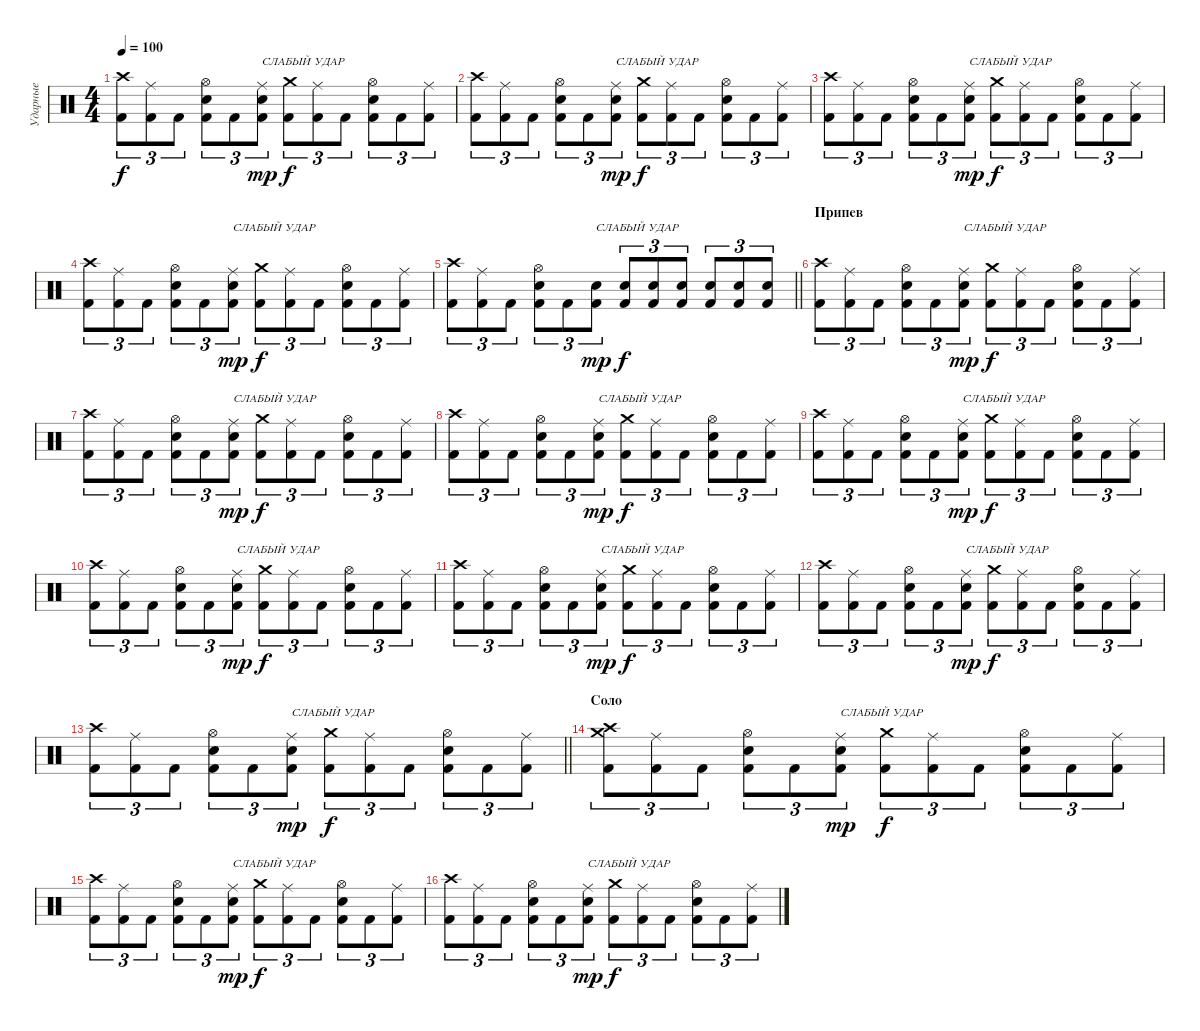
\track ("Ударные" "Ударные") {instrument percussion}
\staff {score}
\articulation defaults
\ts (4 4)
\tempo 100
\clef neutral
\ks c
("Kick (hit) 2" "Crash high (hit)").8{tu (3 2) dy f} ("Kick (hit) 2" "Ride (middle)").8{tu (3 2)} "Kick (hit) 2".8{tu (3 2)} ("Kick (hit) 2" "Snare (hit) 2" "Hi-Hat (open)").8{tu (3 2)} "Kick (hit) 2".8{tu (3 2)} ("Kick (hit) 2" "Snare (hit) 2" "Ride (middle)").8{tu (3 2) txt "СЛАБЫЙ УДАР" dy mp} ("Kick (hit) 2" "Crash medium (hit)").8{tu (3 2) dy f} ("Kick (hit) 2" "Ride (middle)").8{tu (3 2)} "Kick (hit) 2".8{tu (3 2)} ("Kick (hit) 2" "Snare (hit) 2" "Hi-Hat (open)").8{tu (3 2)} "Kick (hit) 2".8{tu (3 2)} ("Kick (hit) 2" "Ride (middle)").8{tu (3 2)} |
("Kick (hit) 2" "Crash high (hit)").8{tu (3 2)} ("Kick (hit) 2" "Ride (middle)").8{tu (3 2)} "Kick (hit) 2".8{tu (3 2)} ("Kick (hit) 2" "Snare (hit) 2" "Hi-Hat (open)").8{tu (3 2)} "Kick (hit) 2".8{tu (3 2)} ("Kick (hit) 2" "Snare (hit) 2" "Ride (middle)").8{tu (3 2) txt "СЛАБЫЙ УДАР" dy mp} ("Kick (hit) 2" "Crash medium (hit)").8{tu (3 2) dy f} ("Kick (hit) 2" "Ride (middle)").8{tu (3 2)} "Kick (hit) 2".8{tu (3 2)} ("Kick (hit) 2" "Snare (hit) 2" "Hi-Hat (open)").8{tu (3 2)} "Kick (hit) 2".8{tu (3 2)} ("Kick (hit) 2" "Ride (middle)").8{tu (3 2)} |
("Kick (hit) 2" "Crash high (hit)").8{tu (3 2)} ("Kick (hit) 2" "Ride (middle)").8{tu (3 2)} "Kick (hit) 2".8{tu (3 2)} ("Kick (hit) 2" "Snare (hit) 2" "Hi-Hat (open)").8{tu (3 2)} "Kick (hit) 2".8{tu (3 2)} ("Kick (hit) 2" "Snare (hit) 2" "Ride (middle)").8{tu (3 2) txt "СЛАБЫЙ УДАР" dy mp} ("Kick (hit) 2" "Crash medium (hit)").8{tu (3 2) dy f} ("Kick (hit) 2" "Ride (middle)").8{tu (3 2)} "Kick (hit) 2".8{tu (3 2)} ("Kick (hit) 2" "Snare (hit) 2" "Hi-Hat (open)").8{tu (3 2)} "Kick (hit) 2".8{tu (3 2)} ("Kick (hit) 2" "Ride (middle)").8{tu (3 2)} |
("Kick (hit) 2" "Crash high (hit)").8{tu (3 2)} ("Kick (hit) 2" "Ride (middle)").8{tu (3 2)} "Kick (hit) 2".8{tu (3 2)} ("Kick (hit) 2" "Snare (hit) 2" "Hi-Hat (open)").8{tu (3 2)} "Kick (hit) 2".8{tu (3 2)} ("Kick (hit) 2" "Snare (hit) 2" "Ride (middle)").8{tu (3 2) txt "СЛАБЫЙ УДАР" dy mp} ("Kick (hit) 2" "Crash medium (hit)").8{tu (3 2) dy f} ("Kick (hit) 2" "Ride (middle)").8{tu (3 2)} "Kick (hit) 2".8{tu (3 2)} ("Kick (hit) 2" "Snare (hit) 2" "Hi-Hat (open)").8{tu (3 2)} "Kick (hit) 2".8{tu (3 2)} ("Kick (hit) 2" "Ride (middle)").8{tu (3 2)} |
\barLineRight lightlight
("Kick (hit) 2" "Crash high (hit)").8{tu (3 2)} ("Kick (hit) 2" "Ride (middle)").8{tu (3 2)} "Kick (hit) 2".8{tu (3 2)} ("Kick (hit) 2" "Snare (hit) 2" "Hi-Hat (open)").8{tu (3 2)} "Kick (hit) 2".8{tu (3 2)} ("Kick (hit) 2" "Snare (hit) 2").8{tu (3 2) txt "СЛАБЫЙ УДАР" dy mp} ("Kick (hit) 2" "Snare (hit) 2").8{tu (3 2) dy f} ("Kick (hit) 2" "Snare (hit) 2").8{tu (3 2)} ("Kick (hit) 2" "Snare (hit) 2").8{tu (3 2)} ("Kick (hit) 2" "Snare (hit) 2").8{tu (3 2)} ("Kick (hit) 2" "Snare (hit) 2").8{tu (3 2)} ("Kick (hit) 2" "Snare (hit) 2").8{tu (3 2)} |
\section ("" "Припев")
("Kick (hit) 2" "Crash high (hit)").8{tu (3 2)} ("Kick (hit) 2" "Ride (middle)").8{tu (3 2)} "Kick (hit) 2".8{tu (3 2)} ("Kick (hit) 2" "Snare (hit) 2" "Hi-Hat (open)").8{tu (3 2)} "Kick (hit) 2".8{tu (3 2)} ("Kick (hit) 2" "Snare (hit) 2" "Ride (middle)").8{tu (3 2) txt "СЛАБЫЙ УДАР" dy mp} ("Kick (hit) 2" "Crash medium (hit)").8{tu (3 2) dy f} ("Kick (hit) 2" "Ride (middle)").8{tu (3 2)} "Kick (hit) 2".8{tu (3 2)} ("Kick (hit) 2" "Snare (hit) 2" "Hi-Hat (open)").8{tu (3 2)} "Kick (hit) 2".8{tu (3 2)} ("Kick (hit) 2" "Ride (middle)").8{tu (3 2)} |
("Kick (hit) 2" "Crash high (hit)").8{tu (3 2)} ("Kick (hit) 2" "Ride (middle)").8{tu (3 2)} "Kick (hit) 2".8{tu (3 2)} ("Kick (hit) 2" "Snare (hit) 2" "Hi-Hat (open)").8{tu (3 2)} "Kick (hit) 2".8{tu (3 2)} ("Kick (hit) 2" "Snare (hit) 2" "Ride (middle)").8{tu (3 2) txt "СЛАБЫЙ УДАР" dy mp} ("Kick (hit) 2" "Crash medium (hit)").8{tu (3 2) dy f} ("Kick (hit) 2" "Ride (middle)").8{tu (3 2)} "Kick (hit) 2".8{tu (3 2)} ("Kick (hit) 2" "Snare (hit) 2" "Hi-Hat (open)").8{tu (3 2)} "Kick (hit) 2".8{tu (3 2)} ("Kick (hit) 2" "Ride (middle)").8{tu (3 2)} |
("Kick (hit) 2" "Crash high (hit)").8{tu (3 2)} ("Kick (hit) 2" "Ride (middle)").8{tu (3 2)} "Kick (hit) 2".8{tu (3 2)} ("Kick (hit) 2" "Snare (hit) 2" "Hi-Hat (open)").8{tu (3 2)} "Kick (hit) 2".8{tu (3 2)} ("Kick (hit) 2" "Snare (hit) 2" "Ride (middle)").8{tu (3 2) txt "СЛАБЫЙ УДАР" dy mp} ("Kick (hit) 2" "Crash medium (hit)").8{tu (3 2) dy f} ("Kick (hit) 2" "Ride (middle)").8{tu (3 2)} "Kick (hit) 2".8{tu (3 2)} ("Kick (hit) 2" "Snare (hit) 2" "Hi-Hat (open)").8{tu (3 2)} "Kick (hit) 2".8{tu (3 2)} ("Kick (hit) 2" "Ride (middle)").8{tu (3 2)} |
("Kick (hit) 2" "Crash high (hit)").8{tu (3 2)} ("Kick (hit) 2" "Ride (middle)").8{tu (3 2)} "Kick (hit) 2".8{tu (3 2)} ("Kick (hit) 2" "Snare (hit) 2" "Hi-Hat (open)").8{tu (3 2)} "Kick (hit) 2".8{tu (3 2)} ("Kick (hit) 2" "Snare (hit) 2" "Ride (middle)").8{tu (3 2) txt "СЛАБЫЙ УДАР" dy mp} ("Kick (hit) 2" "Crash medium (hit)").8{tu (3 2) dy f} ("Kick (hit) 2" "Ride (middle)").8{tu (3 2)} "Kick (hit) 2".8{tu (3 2)} ("Kick (hit) 2" "Snare (hit) 2" "Hi-Hat (open)").8{tu (3 2)} "Kick (hit) 2".8{tu (3 2)} ("Kick (hit) 2" "Ride (middle)").8{tu (3 2)} |
("Kick (hit) 2" "Crash high (hit)").8{tu (3 2)} ("Kick (hit) 2" "Ride (middle)").8{tu (3 2)} "Kick (hit) 2".8{tu (3 2)} ("Kick (hit) 2" "Snare (hit) 2" "Hi-Hat (open)").8{tu (3 2)} "Kick (hit) 2".8{tu (3 2)} ("Kick (hit) 2" "Snare (hit) 2" "Ride (middle)").8{tu (3 2) txt "СЛАБЫЙ УДАР" dy mp} ("Kick (hit) 2" "Crash medium (hit)").8{tu (3 2) dy f} ("Kick (hit) 2" "Ride (middle)").8{tu (3 2)} "Kick (hit) 2".8{tu (3 2)} ("Kick (hit) 2" "Snare (hit) 2" "Hi-Hat (open)").8{tu (3 2)} "Kick (hit) 2".8{tu (3 2)} ("Kick (hit) 2" "Ride (middle)").8{tu (3 2)} |
("Kick (hit) 2" "Crash high (hit)").8{tu (3 2)} ("Kick (hit) 2" "Ride (middle)").8{tu (3 2)} "Kick (hit) 2".8{tu (3 2)} ("Kick (hit) 2" "Snare (hit) 2" "Hi-Hat (open)").8{tu (3 2)} "Kick (hit) 2".8{tu (3 2)} ("Kick (hit) 2" "Snare (hit) 2" "Ride (middle)").8{tu (3 2) txt "СЛАБЫЙ УДАР" dy mp} ("Kick (hit) 2" "Crash medium (hit)").8{tu (3 2) dy f} ("Kick (hit) 2" "Ride (middle)").8{tu (3 2)} "Kick (hit) 2".8{tu (3 2)} ("Kick (hit) 2" "Snare (hit) 2" "Hi-Hat (open)").8{tu (3 2)} "Kick (hit) 2".8{tu (3 2)} ("Kick (hit) 2" "Ride (middle)").8{tu (3 2)} |
("Kick (hit) 2" "Crash high (hit)").8{tu (3 2)} ("Kick (hit) 2" "Ride (middle)").8{tu (3 2)} "Kick (hit) 2".8{tu (3 2)} ("Kick (hit) 2" "Snare (hit) 2" "Hi-Hat (open)").8{tu (3 2)} "Kick (hit) 2".8{tu (3 2)} ("Kick (hit) 2" "Snare (hit) 2" "Ride (middle)").8{tu (3 2) txt "СЛАБЫЙ УДАР" dy mp} ("Kick (hit) 2" "Crash medium (hit)").8{tu (3 2) dy f} ("Kick (hit) 2" "Ride (middle)").8{tu (3 2)} "Kick (hit) 2".8{tu (3 2)} ("Kick (hit) 2" "Snare (hit) 2" "Hi-Hat (open)").8{tu (3 2)} "Kick (hit) 2".8{tu (3 2)} ("Kick (hit) 2" "Ride (middle)").8{tu (3 2)} |
\barLineRight lightlight
("Kick (hit) 2" "Crash high (hit)").8{tu (3 2)} ("Kick (hit) 2" "Ride (middle)").8{tu (3 2)} "Kick (hit) 2".8{tu (3 2)} ("Kick (hit) 2" "Snare (hit) 2" "Hi-Hat (open)").8{tu (3 2)} "Kick (hit) 2".8{tu (3 2)} ("Kick (hit) 2" "Snare (hit) 2" "Ride (middle)").8{tu (3 2) txt "СЛАБЫЙ УДАР" dy mp} ("Kick (hit) 2" "Crash medium (hit)").8{tu (3 2) dy f} ("Kick (hit) 2" "Ride (middle)").8{tu (3 2)} "Kick (hit) 2".8{tu (3 2)} ("Kick (hit) 2" "Snare (hit) 2" "Hi-Hat (open)").8{tu (3 2)} "Kick (hit) 2".8{tu (3 2)} ("Kick (hit) 2" "Ride (middle)").8{tu (3 2)} |
\section ("" "Соло")
("Kick (hit) 2" "Crash medium (hit)" "Crash high (hit)").8{tu (3 2)} ("Kick (hit) 2" "Ride (middle)").8{tu (3 2)} "Kick (hit) 2".8{tu (3 2)} ("Kick (hit) 2" "Snare (hit) 2" "Hi-Hat (open)").8{tu (3 2)} "Kick (hit) 2".8{tu (3 2)} ("Kick (hit) 2" "Snare (hit) 2" "Ride (middle)").8{tu (3 2) txt "СЛАБЫЙ УДАР" dy mp} ("Kick (hit) 2" "Crash medium (hit)").8{tu (3 2) dy f} ("Kick (hit) 2" "Ride (middle)").8{tu (3 2)} "Kick (hit) 2".8{tu (3 2)} ("Kick (hit) 2" "Snare (hit) 2" "Hi-Hat (open)").8{tu (3 2)} "Kick (hit) 2".8{tu (3 2)} ("Kick (hit) 2" "Ride (middle)").8{tu (3 2)} |
("Kick (hit) 2" "Crash high (hit)").8{tu (3 2)} ("Kick (hit) 2" "Ride (middle)").8{tu (3 2)} "Kick (hit) 2".8{tu (3 2)} ("Kick (hit) 2" "Snare (hit) 2" "Hi-Hat (open)").8{tu (3 2)} "Kick (hit) 2".8{tu (3 2)} ("Kick (hit) 2" "Snare (hit) 2" "Ride (middle)").8{tu (3 2) txt "СЛАБЫЙ УДАР" dy mp} ("Kick (hit) 2" "Crash medium (hit)").8{tu (3 2) dy f} ("Kick (hit) 2" "Ride (middle)").8{tu (3 2)} "Kick (hit) 2".8{tu (3 2)} ("Kick (hit) 2" "Snare (hit) 2" "Hi-Hat (open)").8{tu (3 2)} "Kick (hit) 2".8{tu (3 2)} ("Kick (hit) 2" "Ride (middle)").8{tu (3 2)} |
("Kick (hit) 2" "Crash high (hit)").8{tu (3 2)} ("Kick (hit) 2" "Ride (middle)").8{tu (3 2)} "Kick (hit) 2".8{tu (3 2)} ("Kick (hit) 2" "Snare (hit) 2" "Hi-Hat (open)").8{tu (3 2)} "Kick (hit) 2".8{tu (3 2)} ("Kick (hit) 2" "Snare (hit) 2" "Ride (middle)").8{tu (3 2) txt "СЛАБЫЙ УДАР" dy mp} ("Kick (hit) 2" "Crash medium (hit)").8{tu (3 2) dy f} ("Kick (hit) 2" "Ride (middle)").8{tu (3 2)} "Kick (hit) 2".8{tu (3 2)} ("Kick (hit) 2" "Snare (hit) 2" "Hi-Hat (open)").8{tu (3 2)} "Kick (hit) 2".8{tu (3 2)} ("Kick (hit) 2" "Ride (middle)").8{tu (3 2)}
